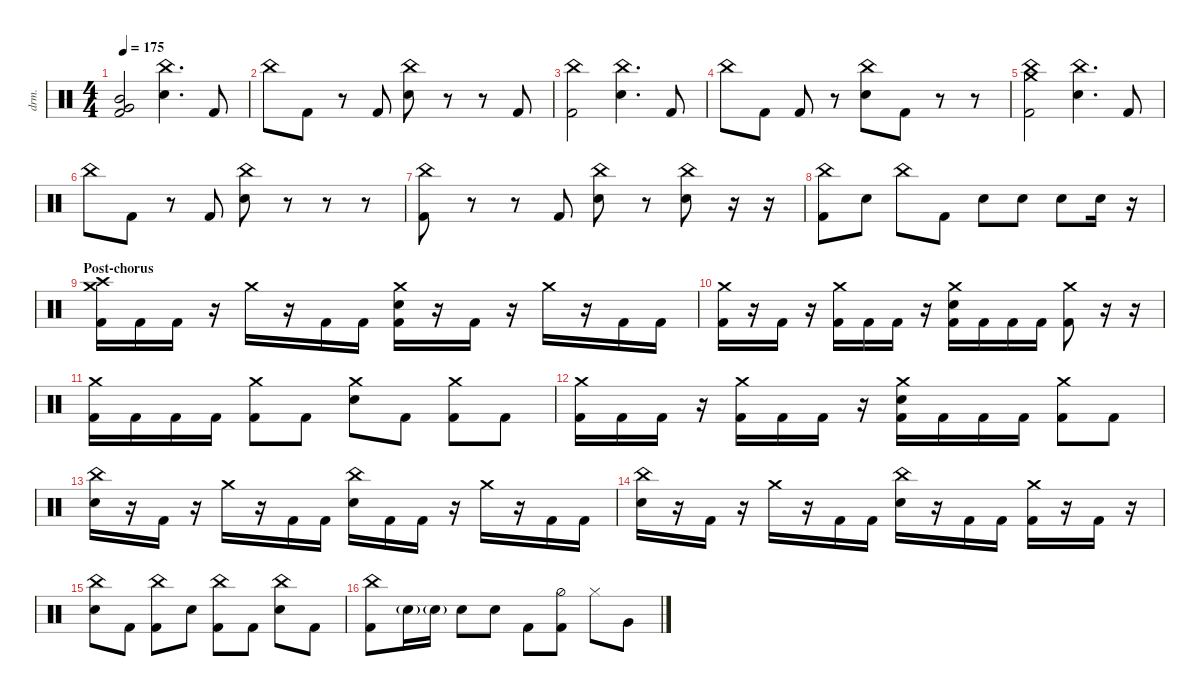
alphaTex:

\defaultSystemsLayout 4
\hideDynamics
\bracketExtendMode nobrackets
\track ("Drums - Mario" "drm.") {instrument percussion}
\staff {score}
\articulation defaults
\ts (4 4)
\tempo 175
\clef neutral
\ks c
("Kick (hit) 2" "Very Low Tom (hit)" "Mid Tom (hit)").2{dy ff} ("Snare (hit) 2" "China (hit)").4{d} "Kick (hit) 2".8 |
"China (hit)".8 "Kick (hit) 2".8 r.8 "Kick (hit) 2".8 ("Snare (hit) 2" "China (hit)").8 r.8 r.8 "Kick (hit) 2".8 |
("Kick (hit) 2" "China (hit)").2 ("Snare (hit) 2" "China (hit)").4{d} "Kick (hit) 2".8 |
"China (hit)".8 "Kick (hit) 2".8 "Kick (hit) 2".8 r.8 ("Snare (hit) 2" "China (hit)").8 "Kick (hit) 2".8 r.8 r.8 |
("China (hit)" "Crash medium (hit)" "Kick (hit) 2").2 ("Snare (hit) 2" "China (hit)").4{d} "Kick (hit) 2".8 |
"China (hit)".8 "Kick (hit) 2".8 r.8 "Kick (hit) 2".8 ("Snare (hit) 2" "China (hit)").8 r.8 r.8 r.8 |
("Kick (hit) 2" "China (hit)").8 r.8 r.8 "Kick (hit) 2".8 ("Snare (hit) 2" "China (hit)").8 r.8 ("Snare (hit) 2" "China (hit)").8 r.16 r.16 |
("Kick (hit) 2" "China (hit)").8 "Snare (hit) 2".8 "China (hit)".8 "Kick (hit) 2".8 "Snare (hit) 2".8 "Snare (hit) 2".8 "Snare (hit) 2".8 "Snare (hit) 2".16 r.16 |
\section ("" "Post-chorus")
("Kick (hit) 2" "Crash medium (hit)" "Crash high (hit)").16 "Kick (hit) 2".16 "Kick (hit) 2".16 r.16 "Crash medium (hit)".16 r.16 "Kick (hit) 2".16 "Kick (hit) 2".16 ("Kick (hit) 2" "Snare (hit) 2" "Crash medium (hit)").16 r.16 "Kick (hit) 2".16 r.16 "Crash medium (hit)".16 r.16 "Kick (hit) 2".16 "Kick (hit) 2".16 |
("Kick (hit) 2" "Crash medium (hit)").16 r.16 "Kick (hit) 2".16 r.16 ("Kick (hit) 2" "Crash medium (hit)").16 "Kick (hit) 2".16 "Kick (hit) 2".16 r.16 ("Kick (hit) 2" "Snare (hit) 2" "Crash medium (hit)").16 "Kick (hit) 2".16 "Kick (hit) 2".16 "Kick (hit) 2".16 ("Kick (hit) 2" "Crash medium (hit)").8 r.16 r.16 |
("Kick (hit) 2" "Crash medium (hit)").16 "Kick (hit) 2".16 "Kick (hit) 2".16 "Kick (hit) 2".16 ("Kick (hit) 2" "Crash medium (hit)").8 "Kick (hit) 2".8 ("Snare (hit) 2" "Crash medium (hit)").8 "Kick (hit) 2".8 ("Crash medium (hit)" "Kick (hit) 2").8 "Kick (hit) 2".8 |
("Kick (hit) 2" "Crash medium (hit)").16 "Kick (hit) 2".16 "Kick (hit) 2".16 r.16 ("Kick (hit) 2" "Crash medium (hit)").16 "Kick (hit) 2".16 "Kick (hit) 2".16 r.16 ("Kick (hit) 2" "Snare (hit) 2" "Crash medium (hit)").16 "Kick (hit) 2".16 "Kick (hit) 2".16 "Kick (hit) 2".16 ("Kick (hit) 2" "Crash medium (hit)").8 "Kick (hit) 2".8 |
("Snare (hit) 2" "China (hit)").16 r.16 "Kick (hit) 2".16 r.16 "Crash medium (hit)".16 r.16 "Kick (hit) 2".16 "Kick (hit) 2".16 ("Snare (hit) 2" "China (hit)").16 "Kick (hit) 2".16 "Kick (hit) 2".16 r.16 "Crash medium (hit)".16 r.16 "Kick (hit) 2".16 "Kick (hit) 2".16 |
("Snare (hit) 2" "China (hit)").16 r.16 "Kick (hit) 2".16 r.16 "Crash medium (hit)".16 r.16 "Kick (hit) 2".16 "Kick (hit) 2".16 ("Snare (hit) 2" "China (hit)").16 r.16 "Kick (hit) 2".16 "Kick (hit) 2".16 ("Crash medium (hit)" "Kick (hit) 2").16 r.16 "Kick (hit) 2".16 r.16 |
("Snare (hit) 2" "China (hit)").8 "Kick (hit) 2".8 ("Kick (hit) 2" "China (hit)").8 "Snare (hit) 2".8 ("Kick (hit) 2" "China (hit)").8 "Kick (hit) 2".8 ("Snare (hit) 2" "China (hit)").8 "Kick (hit) 2".8 |
("Kick (hit) 2" "China (hit)").8 "Snare (hit) 2"{g}.16 "Snare (hit) 2"{g}.16 "Snare (hit) 2".8 "Snare (hit) 2".8 "Kick (hit) 2".8 ("Kick (hit) 2" "Hi-Hat (half)").8 "Hi-Hat (closed)".8 "Very Low Tom (hit)".8
